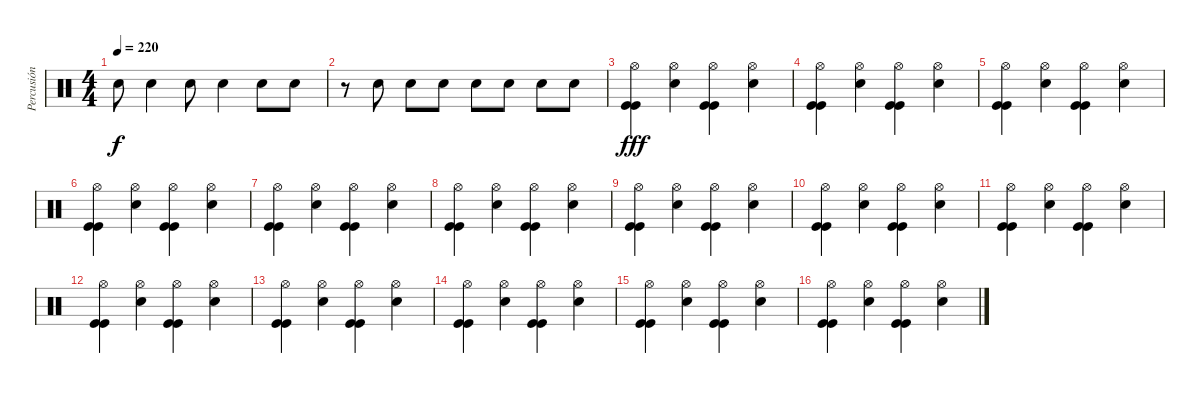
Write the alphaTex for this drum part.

\track ("Percusión" "Percusión") {instrument percussion}
\staff {score}
\articulation defaults
\ts (4 4)
\tempo 220
\clef neutral
\ks c "Snare (hit) 2".8{dy f} "Snare (hit) 2".4 "Snare (hit) 2".8 "Snare (hit) 2".4 "Snare (hit) 2".8 "Snare (hit) 2".8
|
r.8 "Snare (hit) 2".8 "Snare (hit) 2".8 "Snare (hit) 2".8 "Snare (hit) 2".8 "Snare (hit) 2".8 "Snare (hit) 2".8 "Snare (hit) 2".8 |
("Hi-Hat (open)" "Kick (hit)" "Kick (hit)").4{dy fff} ("Hi-Hat (open)" "Snare (hit) 2").4 ("Hi-Hat (open)" "Kick (hit)" "Kick (hit)").4 ("Hi-Hat (open)" "Snare (hit) 2").4 |
("Hi-Hat (open)" "Kick (hit)" "Kick (hit)").4 ("Hi-Hat (open)" "Snare (hit) 2").4 ("Hi-Hat (open)" "Kick (hit)" "Kick (hit)").4 ("Hi-Hat (open)" "Snare (hit) 2").4 |
("Hi-Hat (open)" "Kick (hit)" "Kick (hit)").4 ("Hi-Hat (open)" "Snare (hit) 2").4 ("Hi-Hat (open)" "Kick (hit)" "Kick (hit)").4 ("Hi-Hat (open)" "Snare (hit) 2").4 |
("Hi-Hat (open)" "Kick (hit)" "Kick (hit)").4 ("Hi-Hat (open)" "Snare (hit) 2").4 ("Hi-Hat (open)" "Kick (hit)" "Kick (hit)").4 ("Hi-Hat (open)" "Snare (hit) 2").4 |
("Hi-Hat (open)" "Kick (hit)" "Kick (hit)").4 ("Hi-Hat (open)" "Snare (hit) 2").4 ("Hi-Hat (open)" "Kick (hit)" "Kick (hit)").4 ("Hi-Hat (open)" "Snare (hit) 2").4 |
("Hi-Hat (open)" "Kick (hit)" "Kick (hit)").4 ("Hi-Hat (open)" "Snare (hit) 2").4 ("Hi-Hat (open)" "Kick (hit)" "Kick (hit)").4 ("Hi-Hat (open)" "Snare (hit) 2").4 |
("Hi-Hat (open)" "Kick (hit)" "Kick (hit)").4 ("Hi-Hat (open)" "Snare (hit) 2").4 ("Hi-Hat (open)" "Kick (hit)" "Kick (hit)").4 ("Hi-Hat (open)" "Snare (hit) 2").4 |
("Hi-Hat (open)" "Kick (hit)" "Kick (hit)").4 ("Hi-Hat (open)" "Snare (hit) 2").4 ("Hi-Hat (open)" "Kick (hit)" "Kick (hit)").4 ("Hi-Hat (open)" "Snare (hit) 2").4 |
("Hi-Hat (open)" "Kick (hit)" "Kick (hit)").4 ("Hi-Hat (open)" "Snare (hit) 2").4 ("Hi-Hat (open)" "Kick (hit)" "Kick (hit)").4 ("Hi-Hat (open)" "Snare (hit) 2").4 |
("Hi-Hat (open)" "Kick (hit)" "Kick (hit)").4 ("Hi-Hat (open)" "Snare (hit) 2").4 ("Hi-Hat (open)" "Kick (hit)" "Kick (hit)").4 ("Hi-Hat (open)" "Snare (hit) 2").4 |
("Hi-Hat (open)" "Kick (hit)" "Kick (hit)").4 ("Hi-Hat (open)" "Snare (hit) 2").4 ("Hi-Hat (open)" "Kick (hit)" "Kick (hit)").4 ("Hi-Hat (open)" "Snare (hit) 2").4 |
("Hi-Hat (open)" "Kick (hit)" "Kick (hit)").4 ("Hi-Hat (open)" "Snare (hit) 2").4 ("Hi-Hat (open)" "Kick (hit)" "Kick (hit)").4 ("Hi-Hat (open)" "Snare (hit) 2").4 |
("Hi-Hat (open)" "Kick (hit)" "Kick (hit)").4 ("Hi-Hat (open)" "Snare (hit) 2").4 ("Hi-Hat (open)" "Kick (hit)" "Kick (hit)").4 ("Hi-Hat (open)" "Snare (hit) 2").4 |
("Hi-Hat (open)" "Kick (hit)" "Kick (hit)").4 ("Hi-Hat (open)" "Snare (hit) 2").4 ("Hi-Hat (open)" "Kick (hit)" "Kick (hit)").4 ("Hi-Hat (open)" "Snare (hit) 2").4
